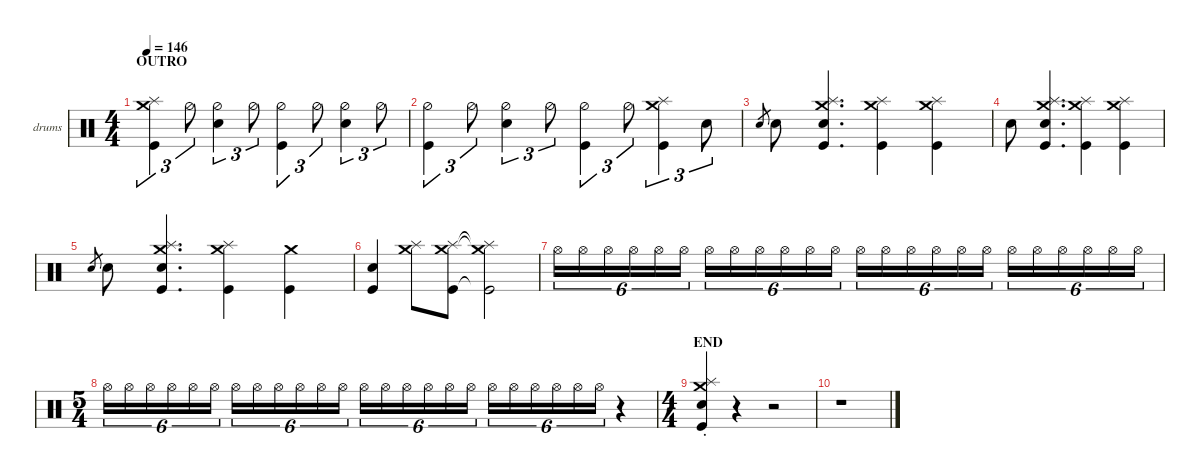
\defaultSystemsLayout 4
\hideDynamics
\bracketExtendMode nobrackets
\firstSystemTrackNameOrientation horizontal
\otherSystemsTrackNameOrientation horizontal
\track ("drums" "drums") {instrument percussion}
\staff {score}
\articulation defaults
\ts (4 4)
\section ("" "OUTRO ")
\tempo 146
\clef neutral
\scale
1.06786
\ks c
("Kick (hit)" "Splash (hit)" "Crash medium (hit)").4{tu (3 2) dy mf} "Hi-Hat (half)".8{tu (3 2)} ("Hi-Hat (half)" "Snare (hit) 2").4{tu (3 2)} "Hi-Hat (half)".8{tu (3 2)} ("Kick (hit)" "Hi-Hat (half)").4{tu (3 2)} "Hi-Hat (half)".8{tu (3 2)} ("Hi-Hat (half)" "Snare (hit) 2").4{tu (3 2)} "Hi-Hat (half)".8{tu (3 2)} |
\scale
0.977379 ("Kick (hit)" "Hi-Hat (half)").4{tu (3 2)} "Hi-Hat (half)".8{tu (3 2)} ("Hi-Hat (half)" "Snare (hit) 2").4{tu (3 2)} "Hi-Hat (half)".8{tu (3 2)} ("Kick (hit)" "Hi-Hat (half)").4{tu (3 2)} "Hi-Hat (half)".8{tu (3 2)} ("Kick (hit)" "Splash (hit)" "Crash medium (hit)").4{tu (3 2)} "Snare (hit) 2".8{tu (3 2)} |
\scale
0.977379 "Snare (hit) 2".8{gr} "Snare (hit) 2".8 ("Kick (hit)" "Splash (hit)" "Crash medium (hit)" "Snare (hit) 2").4{d dy ff} ("Kick (hit)" "Splash (hit)" "Crash medium (hit)").4{dy mf} ("Kick (hit)" "Splash (hit)" "Crash medium (hit)").4 |
\scale
0.977379 "Snare (hit) 2".8{dy f} ("Kick (hit)" "Splash (hit)" "Crash medium (hit)" "Snare (hit) 2").4{d dy ff} ("Kick (hit)" "Splash (hit)" "Crash medium (hit)").4{dy mf} ("Kick (hit)" "Splash (hit)" "Crash medium (hit)").4 |
\scale
1.04462 "Snare (hit) 2".8{gr} "Snare (hit) 2".8 ("Kick (hit)" "Splash (hit)" "Crash medium (hit)" "Snare (hit) 2").4{d dy ff} ("Kick (hit)" "Splash (hit)" "Crash medium (hit)").4{dy mf} ("Kick (hit)" "Crash medium (hit)").4 |
\scale
0.954139 ("Kick (hit)" "Snare (hit) 2").4{dy f} ("Splash (hit)" "Crash medium (hit)").8{dy ff} ("Kick (hit)" "Splash (hit)" "Crash medium (hit)").8 ("Kick (hit)"{t} "Splash (hit)"{t} "Crash medium (hit)"{t}).2 |
\scale
0.954139 "Hi-Hat (open)".16{tu (6 4) dy pp} "Hi-Hat (open)".16{tu (6 4)} "Hi-Hat (open)".16{tu (6 4)} "Hi-Hat (open)".16{tu (6 4)} "Hi-Hat (open)".16{tu (6 4)} "Hi-Hat (open)".16{tu (6 4)} "Hi-Hat (open)".16{tu (6 4)} "Hi-Hat (open)".16{tu (6 4)} "Hi-Hat (open)".16{tu (6 4)} "Hi-Hat (open)".16{tu (6 4)} "Hi-Hat (open)".16{tu (6 4)} "Hi-Hat (open)".16{tu (6 4)} "Hi-Hat (open)".16{tu (6 4)} "Hi-Hat (open)".16{tu (6 4)} "Hi-Hat (open)".16{tu (6 4)} "Hi-Hat (open)".16{tu (6 4)} "Hi-Hat (open)".16{tu (6 4)} "Hi-Hat (open)".16{tu (6 4)} "Hi-Hat (open)".16{tu (6 4)} "Hi-Hat (open)".16{tu (6 4)} "Hi-Hat (open)".16{tu (6 4)} "Hi-Hat (open)".16{tu (6 4)} "Hi-Hat (open)".16{tu (6 4)} "Hi-Hat (open)".16{tu (6 4)} |
\ts (5 4)
\beaming (8 6 4)
\scale
1.0471 "Hi-Hat (open)".16{tu (6 4)} "Hi-Hat (open)".16{tu (6 4)} "Hi-Hat (open)".16{tu (6 4)} "Hi-Hat (open)".16{tu (6 4)} "Hi-Hat (open)".16{tu (6 4)} "Hi-Hat (open)".16{tu (6 4)} "Hi-Hat (open)".16{tu (6 4)} "Hi-Hat (open)".16{tu (6 4)} "Hi-Hat (open)".16{tu (6 4)} "Hi-Hat (open)".16{tu (6 4)} "Hi-Hat (open)".16{tu (6 4)} "Hi-Hat (open)".16{tu (6 4)} "Hi-Hat (open)".16{tu (6 4)} "Hi-Hat (open)".16{tu (6 4)} "Hi-Hat (open)".16{tu (6 4)} "Hi-Hat (open)".16{tu (6 4) dy ppp} "Hi-Hat (open)".16{tu (6 4)} "Hi-Hat (open)".16{tu (6 4)} "Hi-Hat (open)".16{tu (6 4)} "Hi-Hat (open)".16{tu (6 4)} "Hi-Hat (open)".16{tu (6 4)} "Hi-Hat (open)".16{tu (6 4)} "Hi-Hat (open)".16{tu (6 4)} "Hi-Hat (open)".16{tu (6 4)} r.4 |
\ts (4 4)
\beaming (8 2 2 2 2)
\section ("" "END")
\scale
1.12687 ("Kick (hit)"{st} "Splash (hit)"{st} "Crash medium (hit)"{st} "Snare (hit) 2"{st}).4{dy ff} r.4 r.2 |
\scale
0.873129 r.1
